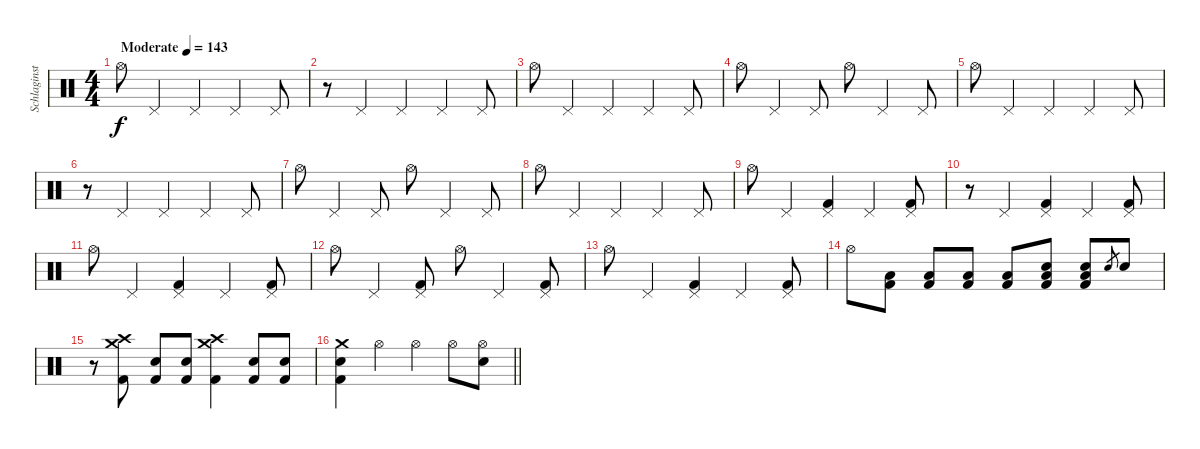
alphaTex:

\track ("Schlaginstrumente - Auswahl" "Schlaginst") {instrument percussion}
\staff {score}
\articulation defaults
\ts (4 4)
\tempo (143 "Moderate")
\clef neutral
\ks c "Hi-Hat (open)".8{dy f} "Pedal Hi-Hat (hit)".4 "Pedal Hi-Hat (hit)".4 "Pedal Hi-Hat (hit)".4 "Pedal Hi-Hat (hit)".8
|
r.8 "Pedal Hi-Hat (hit)".4 "Pedal Hi-Hat (hit)".4 "Pedal Hi-Hat (hit)".4 "Pedal Hi-Hat (hit)".8 |
"Hi-Hat (open)".8 "Pedal Hi-Hat (hit)".4 "Pedal Hi-Hat (hit)".4 "Pedal Hi-Hat (hit)".4 "Pedal Hi-Hat (hit)".8 |
"Hi-Hat (open)".8 "Pedal Hi-Hat (hit)".4 "Pedal Hi-Hat (hit)".8 "Hi-Hat (open)".8 "Pedal Hi-Hat (hit)".4 "Pedal Hi-Hat (hit)".8 |
"Hi-Hat (open)".8 "Pedal Hi-Hat (hit)".4 "Pedal Hi-Hat (hit)".4 "Pedal Hi-Hat (hit)".4 "Pedal Hi-Hat (hit)".8 |
r.8 "Pedal Hi-Hat (hit)".4 "Pedal Hi-Hat (hit)".4 "Pedal Hi-Hat (hit)".4 "Pedal Hi-Hat (hit)".8 |
"Hi-Hat (open)".8 "Pedal Hi-Hat (hit)".4 "Pedal Hi-Hat (hit)".8 "Hi-Hat (open)".8 "Pedal Hi-Hat (hit)".4 "Pedal Hi-Hat (hit)".8 |
"Hi-Hat (open)".8 "Pedal Hi-Hat (hit)".4 "Pedal Hi-Hat (hit)".4 "Pedal Hi-Hat (hit)".4 "Pedal Hi-Hat (hit)".8 |
"Hi-Hat (open)".8 "Pedal Hi-Hat (hit)".4 ("Pedal Hi-Hat (hit)" "Kick (hit) 2").4 "Pedal Hi-Hat (hit)".4 ("Pedal Hi-Hat (hit)" "Kick (hit) 2").8 |
r.8 "Pedal Hi-Hat (hit)".4 ("Pedal Hi-Hat (hit)" "Kick (hit) 2").4 "Pedal Hi-Hat (hit)".4 ("Pedal Hi-Hat (hit)" "Kick (hit) 2").8 |
"Hi-Hat (open)".8 "Pedal Hi-Hat (hit)".4 ("Pedal Hi-Hat (hit)" "Kick (hit) 2").4 "Pedal Hi-Hat (hit)".4 ("Pedal Hi-Hat (hit)" "Kick (hit) 2").8 |
"Hi-Hat (open)".8 "Pedal Hi-Hat (hit)".4 ("Pedal Hi-Hat (hit)" "Kick (hit) 2").8 "Hi-Hat (open)".8 "Pedal Hi-Hat (hit)".4 ("Pedal Hi-Hat (hit)" "Kick (hit) 2").8 |
"Hi-Hat (open)".8 "Pedal Hi-Hat (hit)".4 ("Pedal Hi-Hat (hit)" "Kick (hit) 2").4 "Pedal Hi-Hat (hit)".4 ("Pedal Hi-Hat (hit)" "Kick (hit) 2").8 |
"Hi-Hat (open)".8 ("Low Floor Tom (hit)" "Kick (hit) 2").8 ("Low Floor Tom (hit)" "Kick (hit) 2").8 ("Low Floor Tom (hit)" "Kick (hit) 2").8 ("Low Floor Tom (hit)" "Kick (hit) 2").8 ("Electric Snare (hit)" "Low Floor Tom (hit)" "Kick (hit) 2").8 ("Electric Snare (hit)" "Low Floor Tom (hit)" "Kick (hit) 2").8 "Electric Snare (hit)".8{gr} "Electric Snare (hit)".8 |
r.8 ("Crash medium (hit)" "Crash high (hit)" "Kick (hit) 2").8 ("Electric Snare (hit)" "Kick (hit) 2").8 ("Electric Snare (hit)" "Kick (hit) 2").8 ("Crash medium (hit)" "Crash high (hit)" "Kick (hit) 2").4 ("Electric Snare (hit)" "Kick (hit) 2").8 ("Electric Snare (hit)" "Kick (hit) 2").8 |
\barLineRight lightlight
("Electric Snare (hit)" "Crash medium (hit)" "Kick (hit) 2").4 "Hi-Hat (open)".4 "Hi-Hat (open)".4 "Hi-Hat (open)".8 ("Hi-Hat (open)" "Electric Snare (hit)").8
